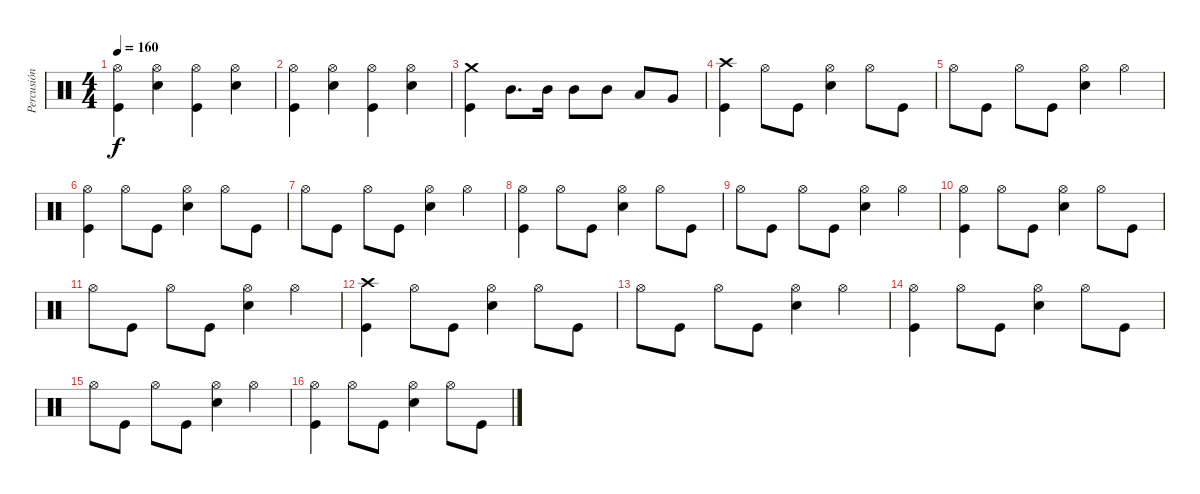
\track ("Percusión" "Percusión") {instrument percussion}
\staff {score}
\articulation defaults
\ts (4 4)
\tempo 160
\clef neutral
\ks c
("Kick (hit)" "Hi-Hat (open)").4{dy f} ("Snare (hit) 2" "Hi-Hat (open)").4 ("Kick (hit)" "Hi-Hat (open)").4 ("Snare (hit) 2" "Hi-Hat (open)").4 |
("Kick (hit)" "Hi-Hat (open)").4 ("Snare (hit) 2" "Hi-Hat (open)").4 ("Kick (hit)" "Hi-Hat (open)").4 ("Snare (hit) 2" "Hi-Hat (open)").4 |
("Kick (hit)" "Crash medium (hit)").4 "Mid Tom (hit)".8{d} "Mid Tom (hit)".16 "Mid Tom (hit)".8 "Mid Tom (hit)".8 "Low Tom (hit)".8 "Very Low Tom (hit)".8 |
("Kick (hit)" "Crash high (hit)").4 "Hi-Hat (open)".8 "Kick (hit)".8 ("Snare (hit) 2" "Hi-Hat (open)").4 "Hi-Hat (open)".8 "Kick (hit)".8 |
"Hi-Hat (open)".8 "Kick (hit)".8 "Hi-Hat (open)".8 "Kick (hit)".8 ("Snare (hit) 2" "Hi-Hat (open)").4 "Hi-Hat (open)".4 |
("Kick (hit)" "Hi-Hat (open)").4 "Hi-Hat (open)".8 "Kick (hit)".8 ("Snare (hit) 2" "Hi-Hat (open)").4 "Hi-Hat (open)".8 "Kick (hit)".8 |
"Hi-Hat (open)".8 "Kick (hit)".8 "Hi-Hat (open)".8 "Kick (hit)".8 ("Snare (hit) 2" "Hi-Hat (open)").4 "Hi-Hat (open)".4 |
("Kick (hit)" "Hi-Hat (open)").4 "Hi-Hat (open)".8 "Kick (hit)".8 ("Snare (hit) 2" "Hi-Hat (open)").4 "Hi-Hat (open)".8 "Kick (hit)".8 |
"Hi-Hat (open)".8 "Kick (hit)".8 "Hi-Hat (open)".8 "Kick (hit)".8 ("Snare (hit) 2" "Hi-Hat (open)").4 "Hi-Hat (open)".4 |
("Kick (hit)" "Hi-Hat (open)").4 "Hi-Hat (open)".8 "Kick (hit)".8 ("Snare (hit) 2" "Hi-Hat (open)").4 "Hi-Hat (open)".8 "Kick (hit)".8 |
"Hi-Hat (open)".8 "Kick (hit)".8 "Hi-Hat (open)".8 "Kick (hit)".8 ("Snare (hit) 2" "Hi-Hat (open)").4 "Hi-Hat (open)".4 |
("Kick (hit)" "Crash high (hit)").4 "Hi-Hat (open)".8 "Kick (hit)".8 ("Snare (hit) 2" "Hi-Hat (open)").4 "Hi-Hat (open)".8 "Kick (hit)".8 |
"Hi-Hat (open)".8 "Kick (hit)".8 "Hi-Hat (open)".8 "Kick (hit)".8 ("Snare (hit) 2" "Hi-Hat (open)").4 "Hi-Hat (open)".4 |
("Kick (hit)" "Hi-Hat (open)").4 "Hi-Hat (open)".8 "Kick (hit)".8 ("Snare (hit) 2" "Hi-Hat (open)").4 "Hi-Hat (open)".8 "Kick (hit)".8 |
"Hi-Hat (open)".8 "Kick (hit)".8 "Hi-Hat (open)".8 "Kick (hit)".8 ("Snare (hit) 2" "Hi-Hat (open)").4 "Hi-Hat (open)".4 |
("Kick (hit)" "Hi-Hat (open)").4 "Hi-Hat (open)".8 "Kick (hit)".8 ("Snare (hit) 2" "Hi-Hat (open)").4 "Hi-Hat (open)".8 "Kick (hit)".8
